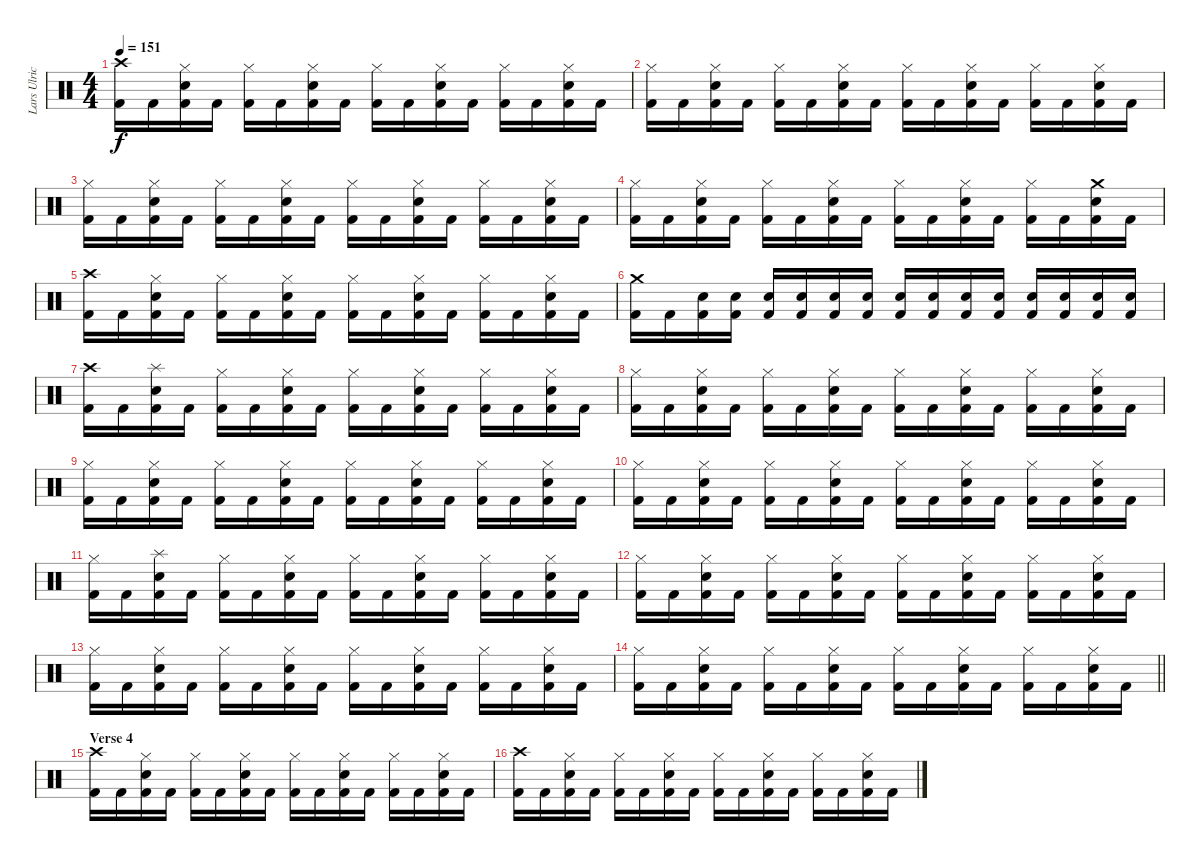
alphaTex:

\track ("Lars Ulrich" "Lars Ulric") {instrument percussion}
\staff {score}
\articulation defaults
\ts (4 4)
\tempo 151
\clef neutral
\ks c
("Crash high (hit)" "Kick (hit) 2").16{dy f} "Kick (hit) 2".16 ("Hi-Hat (closed)" "Snare (hit) 2" "Kick (hit) 2").16 "Kick (hit) 2".16 ("Hi-Hat (closed)" "Kick (hit) 2").16 "Kick (hit) 2".16 ("Hi-Hat (closed)" "Snare (hit) 2" "Kick (hit) 2").16 "Kick (hit) 2".16 ("Hi-Hat (closed)" "Kick (hit) 2").16 "Kick (hit) 2".16 ("Hi-Hat (closed)" "Snare (hit) 2" "Kick (hit) 2").16 "Kick (hit) 2".16 ("Hi-Hat (closed)" "Kick (hit) 2").16 "Kick (hit) 2".16 ("Hi-Hat (closed)" "Snare (hit) 2" "Kick (hit) 2").16 "Kick (hit) 2".16 |
("Hi-Hat (closed)" "Kick (hit) 2").16 "Kick (hit) 2".16 ("Hi-Hat (closed)" "Snare (hit) 2" "Kick (hit) 2").16 "Kick (hit) 2".16 ("Hi-Hat (closed)" "Kick (hit) 2").16 "Kick (hit) 2".16 ("Hi-Hat (closed)" "Snare (hit) 2" "Kick (hit) 2").16 "Kick (hit) 2".16 ("Hi-Hat (closed)" "Kick (hit) 2").16 "Kick (hit) 2".16 ("Hi-Hat (closed)" "Snare (hit) 2" "Kick (hit) 2").16 "Kick (hit) 2".16 ("Hi-Hat (closed)" "Kick (hit) 2").16 "Kick (hit) 2".16 ("Hi-Hat (closed)" "Snare (hit) 2" "Kick (hit) 2").16 "Kick (hit) 2".16 |
("Hi-Hat (closed)" "Kick (hit) 2").16 "Kick (hit) 2".16 ("Hi-Hat (closed)" "Snare (hit) 2" "Kick (hit) 2").16 "Kick (hit) 2".16 ("Hi-Hat (closed)" "Kick (hit) 2").16 "Kick (hit) 2".16 ("Hi-Hat (closed)" "Snare (hit) 2" "Kick (hit) 2").16 "Kick (hit) 2".16 ("Hi-Hat (closed)" "Kick (hit) 2").16 "Kick (hit) 2".16 ("Hi-Hat (closed)" "Snare (hit) 2" "Kick (hit) 2").16 "Kick (hit) 2".16 ("Hi-Hat (closed)" "Kick (hit) 2").16 "Kick (hit) 2".16 ("Hi-Hat (closed)" "Snare (hit) 2" "Kick (hit) 2").16 "Kick (hit) 2".16 |
("Hi-Hat (closed)" "Kick (hit) 2").16 "Kick (hit) 2".16 ("Hi-Hat (closed)" "Snare (hit) 2" "Kick (hit) 2").16 "Kick (hit) 2".16 ("Hi-Hat (closed)" "Kick (hit) 2").16 "Kick (hit) 2".16 ("Hi-Hat (closed)" "Snare (hit) 2" "Kick (hit) 2").16 "Kick (hit) 2".16 ("Hi-Hat (closed)" "Kick (hit) 2").16 "Kick (hit) 2".16 ("Hi-Hat (closed)" "Snare (hit) 2" "Kick (hit) 2").16 "Kick (hit) 2".16 ("Hi-Hat (closed)" "Kick (hit) 2").16 "Kick (hit) 2".16 ("Crash medium (hit)" "Snare (hit) 2" "Kick (hit) 2").16 "Kick (hit) 2".16 |
("Crash high (hit)" "Kick (hit) 2").16 "Kick (hit) 2".16 ("Hi-Hat (closed)" "Snare (hit) 2" "Kick (hit) 2").16 "Kick (hit) 2".16 ("Hi-Hat (closed)" "Kick (hit) 2").16 "Kick (hit) 2".16 ("Hi-Hat (closed)" "Snare (hit) 2" "Kick (hit) 2").16 "Kick (hit) 2".16 ("Hi-Hat (closed)" "Kick (hit) 2").16 "Kick (hit) 2".16 ("Hi-Hat (closed)" "Snare (hit) 2" "Kick (hit) 2").16 "Kick (hit) 2".16 ("Hi-Hat (closed)" "Kick (hit) 2").16 "Kick (hit) 2".16 ("Hi-Hat (closed)" "Snare (hit) 2" "Kick (hit) 2").16 "Kick (hit) 2".16 |
("Crash medium (hit)" "Kick (hit) 2").16{volume 16} "Kick (hit) 2".16 ("Snare (hit) 2" "Kick (hit) 2").16 ("Snare (hit) 2" "Kick (hit) 2").16 ("Snare (hit) 2" "Kick (hit) 2").16 ("Snare (hit) 2" "Kick (hit) 2").16 ("Snare (hit) 2" "Kick (hit) 2").16 ("Snare (hit) 2" "Kick (hit) 2").16 ("Snare (hit) 2" "Kick (hit) 2").16 ("Snare (hit) 2" "Kick (hit) 2").16 ("Snare (hit) 2" "Kick (hit) 2").16 ("Snare (hit) 2" "Kick (hit) 2").16 ("Snare (hit) 2" "Kick (hit) 2").16 ("Snare (hit) 2" "Kick (hit) 2").16 ("Snare (hit) 2" "Kick (hit) 2").16 ("Snare (hit) 2" "Kick (hit) 2").16 |
("Crash high (hit)" "Kick (hit) 2").16 "Kick (hit) 2".16 ("Splash (hit)" "Snare (hit) 2" "Kick (hit) 2").16 "Kick (hit) 2".16 ("Hi-Hat (closed)" "Kick (hit) 2").16 "Kick (hit) 2".16 ("Hi-Hat (closed)" "Snare (hit) 2" "Kick (hit) 2").16 "Kick (hit) 2".16 ("Hi-Hat (closed)" "Kick (hit) 2").16 "Kick (hit) 2".16 ("Hi-Hat (closed)" "Snare (hit) 2" "Kick (hit) 2").16 "Kick (hit) 2".16 ("Hi-Hat (closed)" "Kick (hit) 2").16 "Kick (hit) 2".16 ("Hi-Hat (closed)" "Snare (hit) 2" "Kick (hit) 2").16 "Kick (hit) 2".16 |
("Hi-Hat (closed)" "Kick (hit) 2").16 "Kick (hit) 2".16 ("Hi-Hat (closed)" "Snare (hit) 2" "Kick (hit) 2").16 "Kick (hit) 2".16 ("Hi-Hat (closed)" "Kick (hit) 2").16 "Kick (hit) 2".16 ("Hi-Hat (closed)" "Snare (hit) 2" "Kick (hit) 2").16 "Kick (hit) 2".16 ("Hi-Hat (closed)" "Kick (hit) 2").16 "Kick (hit) 2".16 ("Hi-Hat (closed)" "Snare (hit) 2" "Kick (hit) 2").16 "Kick (hit) 2".16 ("Hi-Hat (closed)" "Kick (hit) 2").16 "Kick (hit) 2".16 ("Hi-Hat (closed)" "Snare (hit) 2" "Kick (hit) 2").16 "Kick (hit) 2".16 |
("Hi-Hat (closed)" "Kick (hit) 2").16 "Kick (hit) 2".16 ("Hi-Hat (closed)" "Snare (hit) 2" "Kick (hit) 2").16 "Kick (hit) 2".16 ("Hi-Hat (closed)" "Kick (hit) 2").16 "Kick (hit) 2".16 ("Hi-Hat (closed)" "Snare (hit) 2" "Kick (hit) 2").16 "Kick (hit) 2".16 ("Hi-Hat (closed)" "Kick (hit) 2").16 "Kick (hit) 2".16 ("Hi-Hat (closed)" "Snare (hit) 2" "Kick (hit) 2").16 "Kick (hit) 2".16 ("Hi-Hat (closed)" "Kick (hit) 2").16 "Kick (hit) 2".16 ("Hi-Hat (closed)" "Snare (hit) 2" "Kick (hit) 2").16 "Kick (hit) 2".16 |
("Hi-Hat (closed)" "Kick (hit) 2").16 "Kick (hit) 2".16 ("Hi-Hat (closed)" "Snare (hit) 2" "Kick (hit) 2").16 "Kick (hit) 2".16 ("Hi-Hat (closed)" "Kick (hit) 2").16 "Kick (hit) 2".16 ("Hi-Hat (closed)" "Snare (hit) 2" "Kick (hit) 2").16 "Kick (hit) 2".16 ("Hi-Hat (closed)" "Kick (hit) 2").16 "Kick (hit) 2".16 ("Hi-Hat (closed)" "Snare (hit) 2" "Kick (hit) 2").16 "Kick (hit) 2".16 ("Hi-Hat (closed)" "Kick (hit) 2").16 "Kick (hit) 2".16 ("Hi-Hat (closed)" "Snare (hit) 2" "Kick (hit) 2").16 "Kick (hit) 2".16 |
("Hi-Hat (closed)" "Kick (hit) 2").16 "Kick (hit) 2".16 ("Splash (hit)" "Snare (hit) 2" "Kick (hit) 2").16 "Kick (hit) 2".16 ("Hi-Hat (closed)" "Kick (hit) 2").16 "Kick (hit) 2".16 ("Hi-Hat (closed)" "Snare (hit) 2" "Kick (hit) 2").16 "Kick (hit) 2".16 ("Hi-Hat (closed)" "Kick (hit) 2").16 "Kick (hit) 2".16 ("Hi-Hat (closed)" "Snare (hit) 2" "Kick (hit) 2").16 "Kick (hit) 2".16 ("Hi-Hat (closed)" "Kick (hit) 2").16 "Kick (hit) 2".16 ("Hi-Hat (closed)" "Snare (hit) 2" "Kick (hit) 2").16 "Kick (hit) 2".16 |
("Hi-Hat (closed)" "Kick (hit) 2").16 "Kick (hit) 2".16 ("Hi-Hat (closed)" "Snare (hit) 2" "Kick (hit) 2").16 "Kick (hit) 2".16 ("Hi-Hat (closed)" "Kick (hit) 2").16 "Kick (hit) 2".16 ("Hi-Hat (closed)" "Snare (hit) 2" "Kick (hit) 2").16 "Kick (hit) 2".16 ("Hi-Hat (closed)" "Kick (hit) 2").16 "Kick (hit) 2".16 ("Hi-Hat (closed)" "Snare (hit) 2" "Kick (hit) 2").16 "Kick (hit) 2".16 ("Hi-Hat (closed)" "Kick (hit) 2").16 "Kick (hit) 2".16 ("Hi-Hat (closed)" "Snare (hit) 2" "Kick (hit) 2").16 "Kick (hit) 2".16 |
("Hi-Hat (closed)" "Kick (hit) 2").16 "Kick (hit) 2".16 ("Hi-Hat (closed)" "Snare (hit) 2" "Kick (hit) 2").16 "Kick (hit) 2".16 ("Hi-Hat (closed)" "Kick (hit) 2").16 "Kick (hit) 2".16 ("Hi-Hat (closed)" "Snare (hit) 2" "Kick (hit) 2").16 "Kick (hit) 2".16 ("Hi-Hat (closed)" "Kick (hit) 2").16 "Kick (hit) 2".16 ("Hi-Hat (closed)" "Snare (hit) 2" "Kick (hit) 2").16 "Kick (hit) 2".16 ("Hi-Hat (closed)" "Kick (hit) 2").16 "Kick (hit) 2".16 ("Hi-Hat (closed)" "Snare (hit) 2" "Kick (hit) 2").16 "Kick (hit) 2".16 |
\barLineRight lightlight
("Hi-Hat (closed)" "Kick (hit) 2").16 "Kick (hit) 2".16 ("Hi-Hat (closed)" "Snare (hit) 2" "Kick (hit) 2").16 "Kick (hit) 2".16 ("Hi-Hat (closed)" "Kick (hit) 2").16 "Kick (hit) 2".16 ("Hi-Hat (closed)" "Snare (hit) 2" "Kick (hit) 2").16 "Kick (hit) 2".16 ("Hi-Hat (closed)" "Kick (hit) 2").16 "Kick (hit) 2".16 ("Hi-Hat (closed)" "Snare (hit) 2" "Kick (hit) 2").16 "Kick (hit) 2".16 ("Hi-Hat (closed)" "Kick (hit) 2").16 "Kick (hit) 2".16 ("Hi-Hat (closed)" "Snare (hit) 2" "Kick (hit) 2").16 "Kick (hit) 2".16 |
\section ("" "Verse 4")
("Crash high (hit)" "Kick (hit) 2").16 "Kick (hit) 2".16 ("Hi-Hat (closed)" "Snare (hit) 2" "Kick (hit) 2").16 "Kick (hit) 2".16 ("Hi-Hat (closed)" "Kick (hit) 2").16 "Kick (hit) 2".16 ("Hi-Hat (closed)" "Snare (hit) 2" "Kick (hit) 2").16 "Kick (hit) 2".16 ("Hi-Hat (closed)" "Kick (hit) 2").16 "Kick (hit) 2".16 ("Hi-Hat (closed)" "Snare (hit) 2" "Kick (hit) 2").16 "Kick (hit) 2".16 ("Hi-Hat (closed)" "Kick (hit) 2").16 "Kick (hit) 2".16 ("Hi-Hat (closed)" "Snare (hit) 2" "Kick (hit) 2").16 "Kick (hit) 2".16 |
("Crash high (hit)" "Kick (hit) 2").16 "Kick (hit) 2".16 ("Hi-Hat (closed)" "Snare (hit) 2" "Kick (hit) 2").16 "Kick (hit) 2".16 ("Hi-Hat (closed)" "Kick (hit) 2").16 "Kick (hit) 2".16 ("Hi-Hat (closed)" "Snare (hit) 2" "Kick (hit) 2").16 "Kick (hit) 2".16 ("Hi-Hat (closed)" "Kick (hit) 2").16 "Kick (hit) 2".16 ("Hi-Hat (closed)" "Snare (hit) 2" "Kick (hit) 2").16 "Kick (hit) 2".16 ("Hi-Hat (closed)" "Kick (hit) 2").16 "Kick (hit) 2".16 ("Hi-Hat (closed)" "Snare (hit) 2" "Kick (hit) 2").16 "Kick (hit) 2".16
